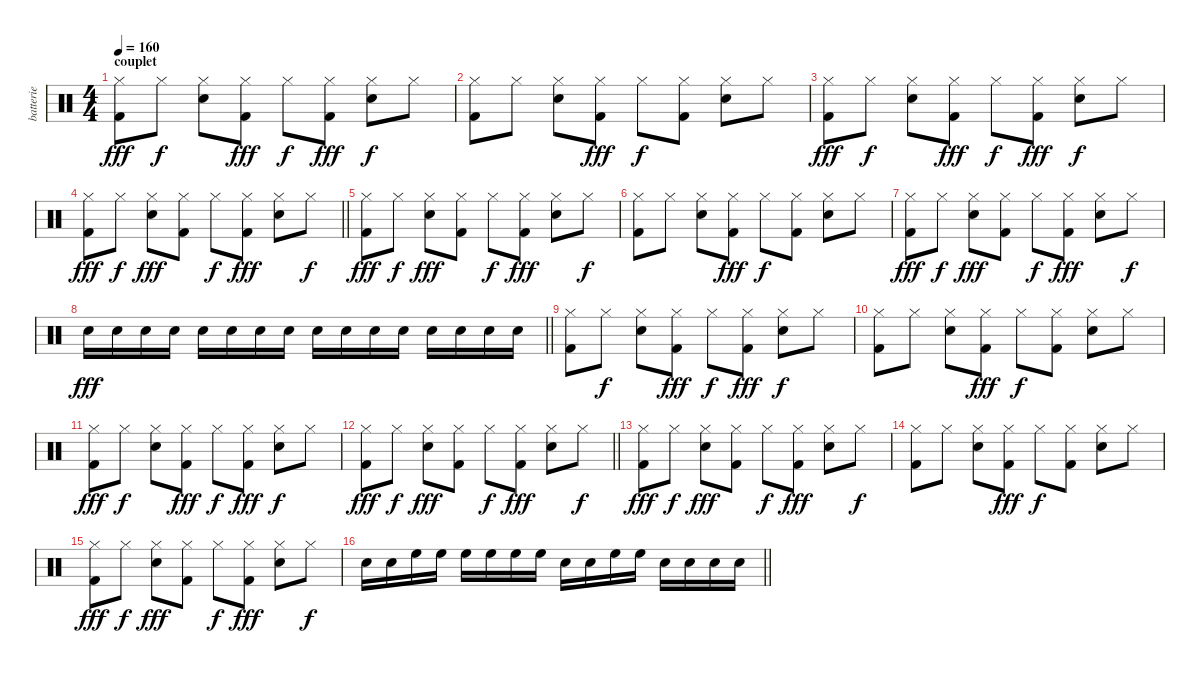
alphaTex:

\track ("batterie" "batterie") {instrument percussion}
\staff {score}
\articulation defaults
\ts (4 4)
\section ("" "couplet")
\tempo 160
\clef neutral
\ks c
("Hi-Hat (closed)" "Kick (hit) 2").8{dy fff} "Hi-Hat (closed)".8{dy f} ("Hi-Hat (closed)" "Electric Snare (hit)").8 ("Hi-Hat (closed)" "Kick (hit) 2").8{dy fff} "Hi-Hat (closed)".8{dy f} ("Hi-Hat (closed)" "Kick (hit) 2").8{dy fff} ("Hi-Hat (closed)" "Electric Snare (hit)").8{dy f} "Hi-Hat (closed)".8 |
("Hi-Hat (closed)" "Kick (hit) 2").8 "Hi-Hat (closed)".8 ("Hi-Hat (closed)" "Electric Snare (hit)").8 ("Hi-Hat (closed)" "Kick (hit) 2").8{dy fff} "Hi-Hat (closed)".8{dy f} ("Hi-Hat (closed)" "Kick (hit) 2").8 ("Hi-Hat (closed)" "Electric Snare (hit)").8 "Hi-Hat (closed)".8 |
("Hi-Hat (closed)" "Kick (hit) 2").8{dy fff} "Hi-Hat (closed)".8{dy f} ("Hi-Hat (closed)" "Electric Snare (hit)").8 ("Hi-Hat (closed)" "Kick (hit) 2").8{dy fff} "Hi-Hat (closed)".8{dy f} ("Hi-Hat (closed)" "Kick (hit) 2").8{dy fff} ("Hi-Hat (closed)" "Electric Snare (hit)").8{dy f} "Hi-Hat (closed)".8 |
\barLineRight lightlight
("Hi-Hat (closed)" "Kick (hit) 2").8{dy fff} "Hi-Hat (closed)".8{dy f} ("Hi-Hat (closed)" "Electric Snare (hit)").8{dy fff} ("Hi-Hat (closed)" "Kick (hit) 2").8 "Hi-Hat (closed)".8{dy f} ("Hi-Hat (closed)" "Kick (hit) 2").8{dy fff} ("Hi-Hat (closed)" "Electric Snare (hit)").8 "Hi-Hat (closed)".8{dy f} |
("Hi-Hat (closed)" "Kick (hit) 2").8{dy fff} "Hi-Hat (closed)".8{dy f} ("Hi-Hat (closed)" "Electric Snare (hit)").8{dy fff} ("Hi-Hat (closed)" "Kick (hit) 2").8 "Hi-Hat (closed)".8{dy f} ("Hi-Hat (closed)" "Kick (hit) 2").8{dy fff} ("Hi-Hat (closed)" "Electric Snare (hit)").8 "Hi-Hat (closed)".8{dy f} |
("Hi-Hat (closed)" "Kick (hit) 2").8 "Hi-Hat (closed)".8 ("Hi-Hat (closed)" "Electric Snare (hit)").8 ("Hi-Hat (closed)" "Kick (hit) 2").8{dy fff} "Hi-Hat (closed)".8{dy f} ("Hi-Hat (closed)" "Kick (hit) 2").8 ("Hi-Hat (closed)" "Electric Snare (hit)").8 "Hi-Hat (closed)".8 |
("Hi-Hat (closed)" "Kick (hit) 2").8{dy fff} "Hi-Hat (closed)".8{dy f} ("Hi-Hat (closed)" "Electric Snare (hit)").8{dy fff} ("Hi-Hat (closed)" "Kick (hit) 2").8 "Hi-Hat (closed)".8{dy f} ("Hi-Hat (closed)" "Kick (hit) 2").8{dy fff} ("Hi-Hat (closed)" "Electric Snare (hit)").8 "Hi-Hat (closed)".8{dy f} |
\barLineRight lightlight "Electric Snare (hit)".16{dy fff} "Electric Snare (hit)".16 "Electric Snare (hit)".16 "Electric Snare (hit)".16 "Electric Snare (hit)".16 "Electric Snare (hit)".16 "Electric Snare (hit)".16 "Electric Snare (hit)".16 "Electric Snare (hit)".16 "Electric Snare (hit)".16 "Electric Snare (hit)".16 "Electric Snare (hit)".16 "Electric Snare (hit)".16 "Electric Snare (hit)".16 "Electric Snare (hit)".16 "Electric Snare (hit)".16
|
("Hi-Hat (closed)" "Kick (hit) 2").8 "Hi-Hat (closed)".8{dy f} ("Hi-Hat (closed)" "Electric Snare (hit)").8 ("Hi-Hat (closed)" "Kick (hit) 2").8{dy fff} "Hi-Hat (closed)".8{dy f} ("Hi-Hat (closed)" "Kick (hit) 2").8{dy fff} ("Hi-Hat (closed)" "Electric Snare (hit)").8{dy f} "Hi-Hat (closed)".8 |
("Hi-Hat (closed)" "Kick (hit) 2").8 "Hi-Hat (closed)".8 ("Hi-Hat (closed)" "Electric Snare (hit)").8 ("Hi-Hat (closed)" "Kick (hit) 2").8{dy fff} "Hi-Hat (closed)".8{dy f} ("Hi-Hat (closed)" "Kick (hit) 2").8 ("Hi-Hat (closed)" "Electric Snare (hit)").8 "Hi-Hat (closed)".8 |
("Hi-Hat (closed)" "Kick (hit) 2").8{dy fff} "Hi-Hat (closed)".8{dy f} ("Hi-Hat (closed)" "Electric Snare (hit)").8 ("Hi-Hat (closed)" "Kick (hit) 2").8{dy fff} "Hi-Hat (closed)".8{dy f} ("Hi-Hat (closed)" "Kick (hit) 2").8{dy fff} ("Hi-Hat (closed)" "Electric Snare (hit)").8{dy f} "Hi-Hat (closed)".8 |
\barLineRight lightlight
("Hi-Hat (closed)" "Kick (hit) 2").8{dy fff} "Hi-Hat (closed)".8{dy f} ("Hi-Hat (closed)" "Electric Snare (hit)").8{dy fff} ("Hi-Hat (closed)" "Kick (hit) 2").8 "Hi-Hat (closed)".8{dy f} ("Hi-Hat (closed)" "Kick (hit) 2").8{dy fff} ("Hi-Hat (closed)" "Electric Snare (hit)").8 "Hi-Hat (closed)".8{dy f} |
("Hi-Hat (closed)" "Kick (hit) 2").8{dy fff} "Hi-Hat (closed)".8{dy f} ("Hi-Hat (closed)" "Electric Snare (hit)").8{dy fff} ("Hi-Hat (closed)" "Kick (hit) 2").8 "Hi-Hat (closed)".8{dy f} ("Hi-Hat (closed)" "Kick (hit) 2").8{dy fff} ("Hi-Hat (closed)" "Electric Snare (hit)").8 "Hi-Hat (closed)".8{dy f} |
("Hi-Hat (closed)" "Kick (hit) 2").8 "Hi-Hat (closed)".8 ("Hi-Hat (closed)" "Electric Snare (hit)").8 ("Hi-Hat (closed)" "Kick (hit) 2").8{dy fff} "Hi-Hat (closed)".8{dy f} ("Hi-Hat (closed)" "Kick (hit) 2").8 ("Hi-Hat (closed)" "Electric Snare (hit)").8 "Hi-Hat (closed)".8 |
("Hi-Hat (closed)" "Kick (hit) 2").8{dy fff} "Hi-Hat (closed)".8{dy f} ("Hi-Hat (closed)" "Electric Snare (hit)").8{dy fff} ("Hi-Hat (closed)" "Kick (hit) 2").8 "Hi-Hat (closed)".8{dy f} ("Hi-Hat (closed)" "Kick (hit) 2").8{dy fff} ("Hi-Hat (closed)" "Electric Snare (hit)").8 "Hi-Hat (closed)".8{dy f} |
\barLineRight lightlight "Electric Snare (hit)".16 "Electric Snare (hit)".16 "High Floor Tom (hit)".16 "High Floor Tom (hit)".16 "High Floor Tom (hit)".16 "High Floor Tom (hit)".16 "High Floor Tom (hit)".16 "High Floor Tom (hit)".16 "Electric Snare (hit)".16 "Electric Snare (hit)".16 "High Floor Tom (hit)".16 "High Floor Tom (hit)".16 "Electric Snare (hit)".16 "Electric Snare (hit)".16 "Electric Snare (hit)".16 "Electric Snare (hit)".16
